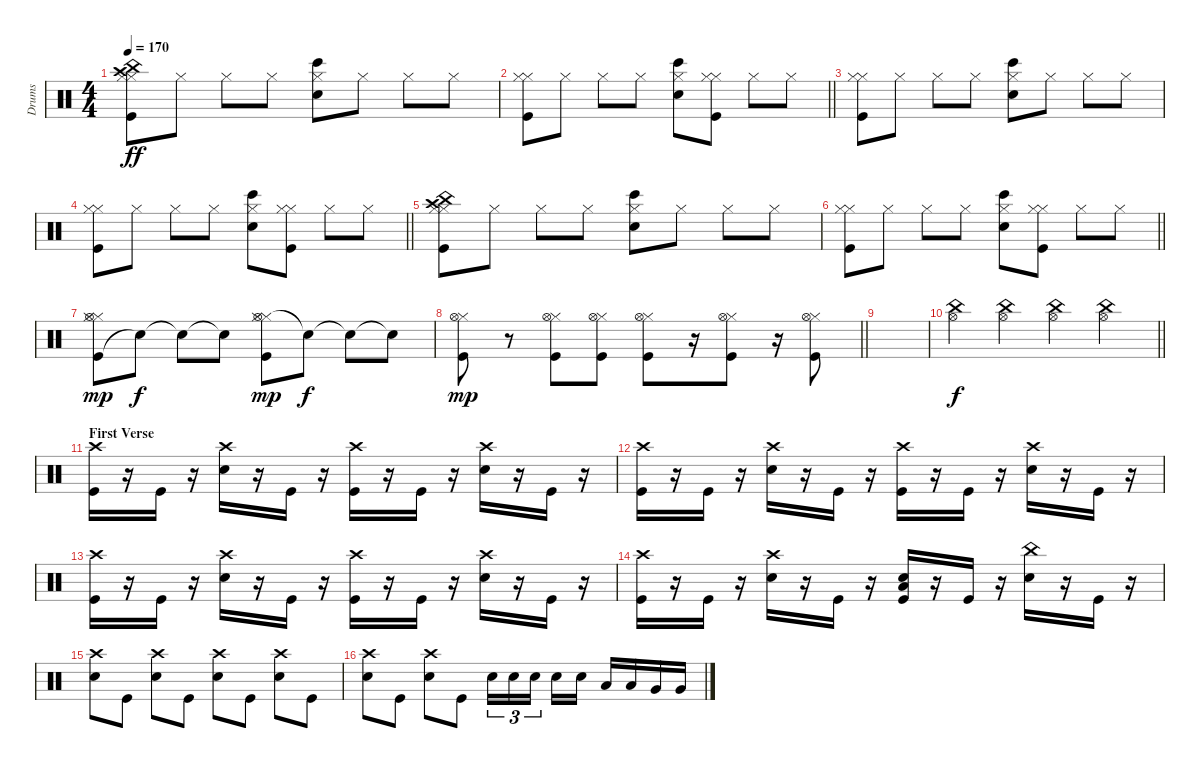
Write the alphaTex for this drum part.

\track ("Drums" "Drums") {instrument percussion}
\staff {score}
\articulation defaults
\ts (4 4)
\tempo 170
\clef neutral
\ks c
("China (hit)" "Kick (hit)" "Hi-Hat (closed)" "Hi-Hat (closed)" "Crash high (hit)").8{dy ff} "Hi-Hat (closed)".8 "Hi-Hat (closed)".8 "Hi-Hat (closed)".8 ("Snare (hit) 2" "Bongo High (hit)" "Hi-Hat (closed)").8 "Hi-Hat (closed)".8 "Hi-Hat (closed)".8 "Hi-Hat (closed)".8 |
\barLineRight lightlight
("Kick (hit)" "Hi-Hat (closed)" "Hi-Hat (closed)").8 "Hi-Hat (closed)".8 "Hi-Hat (closed)".8 "Hi-Hat (closed)".8 ("Snare (hit) 2" "Bongo High (hit)" "Hi-Hat (closed)").8 ("Hi-Hat (closed)" "Kick (hit)" "Hi-Hat (closed)").8 "Hi-Hat (closed)".8 "Hi-Hat (closed)".8 |
("Kick (hit)" "Hi-Hat (closed)" "Hi-Hat (closed)").8 "Hi-Hat (closed)".8 "Hi-Hat (closed)".8 "Hi-Hat (closed)".8 ("Snare (hit) 2" "Bongo High (hit)" "Hi-Hat (closed)").8 "Hi-Hat (closed)".8 "Hi-Hat (closed)".8 "Hi-Hat (closed)".8 |
\barLineRight lightlight
("Kick (hit)" "Hi-Hat (closed)" "Hi-Hat (closed)").8 "Hi-Hat (closed)".8 "Hi-Hat (closed)".8 "Hi-Hat (closed)".8 ("Snare (hit) 2" "Bongo High (hit)" "Hi-Hat (closed)").8 ("Hi-Hat (closed)" "Kick (hit)" "Hi-Hat (closed)").8 "Hi-Hat (closed)".8 "Hi-Hat (closed)".8 |
("China (hit)" "Kick (hit)" "Hi-Hat (closed)" "Hi-Hat (closed)" "Crash high (hit)").8 "Hi-Hat (closed)".8 "Hi-Hat (closed)".8 "Hi-Hat (closed)".8 ("Snare (hit) 2" "Bongo High (hit)" "Hi-Hat (closed)").8 "Hi-Hat (closed)".8 "Hi-Hat (closed)".8 "Hi-Hat (closed)".8 |
\barLineRight lightlight
("Kick (hit)" "Hi-Hat (closed)" "Hi-Hat (closed)").8 "Hi-Hat (closed)".8 "Hi-Hat (closed)".8 "Hi-Hat (closed)".8 ("Snare (hit) 2" "Bongo High (hit)" "Hi-Hat (closed)").8 ("Hi-Hat (closed)" "Kick (hit)" "Hi-Hat (closed)").8 "Hi-Hat (closed)".8 "Hi-Hat (closed)".8 |
("Kick (hit)" "Hi-Hat (closed)" "Hi-Hat (closed)" "Hi-Hat (open)").8{dy mp} "Snare (hit)"{t}.8{dy f} "Snare (hit)"{t}.8 "Snare (hit)"{t}.8 ("Hi-Hat (closed)" "Kick (hit)" "Hi-Hat (closed)" "Hi-Hat (open)").8{dy mp} "Snare (hit)"{t}.8{dy f} "Snare (hit)"{t}.8 "Snare (hit)"{t}.8 |
\barLineRight lightlight
("Kick (hit)" "Hi-Hat (closed)" "Hi-Hat (open)").8{dy mp} r.8 ("Kick (hit)" "Hi-Hat (closed)" "Hi-Hat (open)").8 ("Kick (hit)" "Hi-Hat (closed)" "Hi-Hat (open)").8 ("Kick (hit)" "Hi-Hat (closed)" "Hi-Hat (open)").8 r.16 ("Kick (hit)" "Hi-Hat (closed)" "Hi-Hat (open)").8 r.16 ("Kick (hit)" "Hi-Hat (closed)" "Hi-Hat (open)").8 |
|
\barLineRight lightlight
("Hi-Hat (open)" "China (hit)").4{dy f} ("Hi-Hat (open)" "China (hit)").4 ("Hi-Hat (open)" "China (hit)").4 ("Hi-Hat (open)" "China (hit)").4 |
\section ("" "First Verse")
("Kick (hit)" "Crash high (hit)").16 r.16 "Kick (hit)".16 r.16 ("Snare (hit) 2" "Crash high (hit)").16 r.16 "Kick (hit)".16 r.16 ("Kick (hit)" "Crash high (hit)").16 r.16 "Kick (hit)".16 r.16 ("Snare (hit) 2" "Crash high (hit)").16 r.16 "Kick (hit)".16 r.16 |
("Kick (hit)" "Crash high (hit)").16 r.16 "Kick (hit)".16 r.16 ("Snare (hit) 2" "Crash high (hit)").16 r.16 "Kick (hit)".16 r.16 ("Kick (hit)" "Crash high (hit)").16 r.16 "Kick (hit)".16 r.16 ("Snare (hit) 2" "Crash high (hit)").16 r.16 "Kick (hit)".16 r.16 |
("Kick (hit)" "Crash high (hit)").16 r.16 "Kick (hit)".16 r.16 ("Snare (hit) 2" "Crash high (hit)").16 r.16 "Kick (hit)".16 r.16 ("Kick (hit)" "Crash high (hit)").16 r.16 "Kick (hit)".16 r.16 ("Snare (hit) 2" "Crash high (hit)").16 r.16 "Kick (hit)".16 r.16 |
("Kick (hit)" "Crash high (hit)").16 r.16 "Kick (hit)".16 r.16 ("Snare (hit) 2" "Crash high (hit)").16 r.16 "Kick (hit)".16 r.16 ("Kick (hit)" "Snare (hit) 2" "Low Tom (hit)").16 r.16 "Kick (hit)".16 r.16 ("Snare (hit) 2" "China (hit)").16 r.16 "Kick (hit)".16 r.16 |
("Snare (hit) 2" "Crash high (hit)").8 "Kick (hit)".8 ("Snare (hit) 2" "Crash high (hit)").8 "Kick (hit)".8 ("Snare (hit) 2" "Crash high (hit)").8 "Kick (hit)".8 ("Snare (hit) 2" "Crash high (hit)").8 "Kick (hit)".8 |
("Snare (hit) 2" "Crash high (hit)").8 "Kick (hit)".8 ("Snare (hit) 2" "Crash high (hit)").8 "Kick (hit)".8 "Snare (hit) 2".16{tu (3 2)} "Snare (hit) 2".16{tu (3 2)} "Snare (hit) 2".16{tu (3 2) beam splitsecondary} "Snare (hit) 2".16 "Snare (hit) 2".16 "Low Tom (hit)".16 "Low Tom (hit)".16 "Very Low Tom (hit)".16 "Very Low Tom (hit)".16
